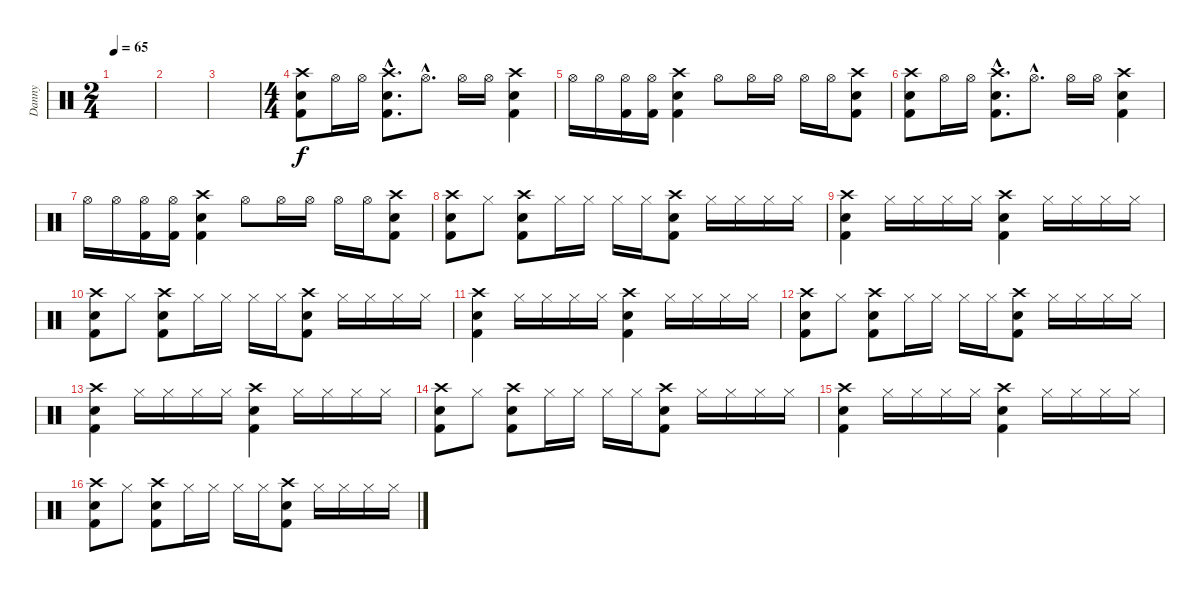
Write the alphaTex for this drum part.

\track ("Danny" "Danny") {instrument percussion}
\staff {score}
\articulation defaults
\ts (2 4)
\tempo 65
\clef neutral
\ks c
|
|
|
\ts (4 4)
("Crash high (hit)" "Snare (hit) 2" "Kick (hit) 2").8 "Hi-Hat (open)".16 "Hi-Hat (open)".16 ("Crash high (hit)"{hac} "Snare (hit) 2"{hac} "Kick (hit) 2"{hac}).8{d} "Hi-Hat (open)"{hac}.8{d} "Hi-Hat (open)".16 "Hi-Hat (open)".16 ("Crash high (hit)" "Snare (hit) 2" "Kick (hit) 2").4 |
"Hi-Hat (open)".16 "Hi-Hat (open)".16 ("Hi-Hat (open)" "Kick (hit) 2").16 ("Hi-Hat (open)" "Kick (hit) 2").16 ("Crash high (hit)" "Snare (hit) 2" "Kick (hit) 2").4 "Hi-Hat (open)".8 "Hi-Hat (open)".16 "Hi-Hat (open)".16 "Hi-Hat (open)".16 "Hi-Hat (open)".16 ("Crash high (hit)" "Snare (hit) 2" "Kick (hit) 2").8 |
("Crash high (hit)" "Snare (hit) 2" "Kick (hit) 2").8 "Hi-Hat (open)".16 "Hi-Hat (open)".16 ("Crash high (hit)"{hac} "Snare (hit) 2"{hac} "Kick (hit) 2"{hac}).8{d} "Hi-Hat (open)"{hac}.8{d} "Hi-Hat (open)".16 "Hi-Hat (open)".16 ("Crash high (hit)" "Snare (hit) 2" "Kick (hit) 2").4 |
"Hi-Hat (open)".16 "Hi-Hat (open)".16 ("Hi-Hat (open)" "Kick (hit) 2").16 ("Hi-Hat (open)" "Kick (hit) 2").16 ("Crash high (hit)" "Snare (hit) 2" "Kick (hit) 2").4 "Hi-Hat (open)".8 "Hi-Hat (open)".16 "Hi-Hat (open)".16 "Hi-Hat (open)".16 "Hi-Hat (open)".16 ("Crash high (hit)" "Snare (hit) 2" "Kick (hit) 2").8 |
("Crash high (hit)" "Snare (hit) 2" "Kick (hit) 2").8 "Hi-Hat (closed)".8 ("Crash high (hit)" "Snare (hit) 2" "Kick (hit) 2").8 "Hi-Hat (closed)".16 "Hi-Hat (closed)".16 "Hi-Hat (closed)".16 "Hi-Hat (closed)".16 ("Crash high (hit)" "Snare (hit) 2" "Kick (hit) 2").8 "Hi-Hat (closed)".16 "Hi-Hat (closed)".16 "Hi-Hat (closed)".16 "Hi-Hat (closed)".16 |
("Crash high (hit)" "Snare (hit) 2" "Kick (hit) 2").4 "Hi-Hat (closed)".16 "Hi-Hat (closed)".16 "Hi-Hat (closed)".16 "Hi-Hat (closed)".16 ("Crash high (hit)" "Snare (hit) 2" "Kick (hit) 2").4 "Hi-Hat (closed)".16 "Hi-Hat (closed)".16 "Hi-Hat (closed)".16 "Hi-Hat (closed)".16 |
("Crash high (hit)" "Snare (hit) 2" "Kick (hit) 2").8 "Hi-Hat (closed)".8 ("Crash high (hit)" "Snare (hit) 2" "Kick (hit) 2").8 "Hi-Hat (closed)".16 "Hi-Hat (closed)".16 "Hi-Hat (closed)".16 "Hi-Hat (closed)".16 ("Crash high (hit)" "Snare (hit) 2" "Kick (hit) 2").8 "Hi-Hat (closed)".16 "Hi-Hat (closed)".16 "Hi-Hat (closed)".16 "Hi-Hat (closed)".16 |
("Crash high (hit)" "Snare (hit) 2" "Kick (hit) 2").4 "Hi-Hat (closed)".16 "Hi-Hat (closed)".16 "Hi-Hat (closed)".16 "Hi-Hat (closed)".16 ("Crash high (hit)" "Snare (hit) 2" "Kick (hit) 2").4 "Hi-Hat (closed)".16 "Hi-Hat (closed)".16 "Hi-Hat (closed)".16 "Hi-Hat (closed)".16 |
("Crash high (hit)" "Snare (hit) 2" "Kick (hit) 2").8 "Hi-Hat (closed)".8 ("Crash high (hit)" "Snare (hit) 2" "Kick (hit) 2").8 "Hi-Hat (closed)".16 "Hi-Hat (closed)".16 "Hi-Hat (closed)".16 "Hi-Hat (closed)".16 ("Crash high (hit)" "Snare (hit) 2" "Kick (hit) 2").8 "Hi-Hat (closed)".16 "Hi-Hat (closed)".16 "Hi-Hat (closed)".16 "Hi-Hat (closed)".16 |
("Crash high (hit)" "Snare (hit) 2" "Kick (hit) 2").4 "Hi-Hat (closed)".16 "Hi-Hat (closed)".16 "Hi-Hat (closed)".16 "Hi-Hat (closed)".16 ("Crash high (hit)" "Snare (hit) 2" "Kick (hit) 2").4 "Hi-Hat (closed)".16 "Hi-Hat (closed)".16 "Hi-Hat (closed)".16 "Hi-Hat (closed)".16 |
("Crash high (hit)" "Snare (hit) 2" "Kick (hit) 2").8 "Hi-Hat (closed)".8 ("Crash high (hit)" "Snare (hit) 2" "Kick (hit) 2").8 "Hi-Hat (closed)".16 "Hi-Hat (closed)".16 "Hi-Hat (closed)".16 "Hi-Hat (closed)".16 ("Crash high (hit)" "Snare (hit) 2" "Kick (hit) 2").8 "Hi-Hat (closed)".16 "Hi-Hat (closed)".16 "Hi-Hat (closed)".16 "Hi-Hat (closed)".16 |
("Crash high (hit)" "Snare (hit) 2" "Kick (hit) 2").4 "Hi-Hat (closed)".16 "Hi-Hat (closed)".16 "Hi-Hat (closed)".16 "Hi-Hat (closed)".16 ("Crash high (hit)" "Snare (hit) 2" "Kick (hit) 2").4 "Hi-Hat (closed)".16 "Hi-Hat (closed)".16 "Hi-Hat (closed)".16 "Hi-Hat (closed)".16 |
("Crash high (hit)" "Snare (hit) 2" "Kick (hit) 2").8 "Hi-Hat (closed)".8 ("Crash high (hit)" "Snare (hit) 2" "Kick (hit) 2").8 "Hi-Hat (closed)".16 "Hi-Hat (closed)".16 "Hi-Hat (closed)".16 "Hi-Hat (closed)".16 ("Crash high (hit)" "Snare (hit) 2" "Kick (hit) 2").8 "Hi-Hat (closed)".16 "Hi-Hat (closed)".16 "Hi-Hat (closed)".16 "Hi-Hat (closed)".16
